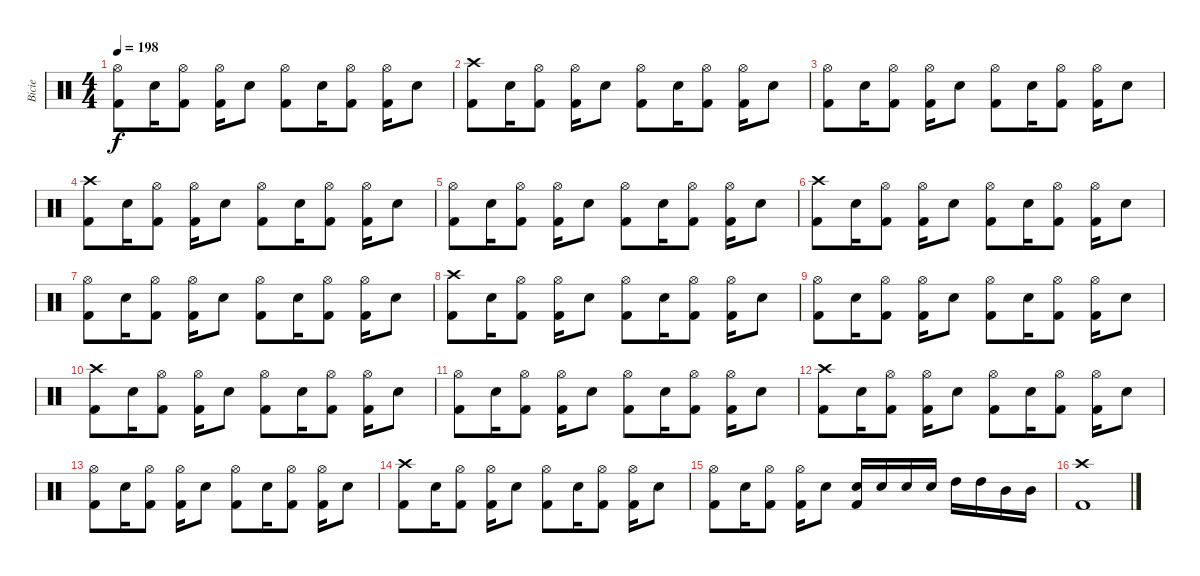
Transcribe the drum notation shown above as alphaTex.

\track ("Bicie" "Bicie") {instrument percussion}
\staff {score}
\articulation defaults
\ts (4 4)
\tempo 198
\clef neutral
\ks c
("Hi-Hat (open)" "Kick (hit) 2").8{dy f} "Electric Snare (hit)".16 ("Hi-Hat (open)" "Kick (hit) 2").8 ("Hi-Hat (open)" "Kick (hit) 2").16 "Electric Snare (hit)".8 ("Hi-Hat (open)" "Kick (hit) 2").8 "Electric Snare (hit)".16 ("Hi-Hat (open)" "Kick (hit) 2").8 ("Hi-Hat (open)" "Kick (hit) 2").16 "Electric Snare (hit)".8 |
("Crash high (hit)" "Kick (hit) 2").8 "Electric Snare (hit)".16 ("Hi-Hat (open)" "Kick (hit) 2").8 ("Hi-Hat (open)" "Kick (hit) 2").16 "Electric Snare (hit)".8 ("Hi-Hat (open)" "Kick (hit) 2").8 "Electric Snare (hit)".16 ("Hi-Hat (open)" "Kick (hit) 2").8 ("Hi-Hat (open)" "Kick (hit) 2").16 "Electric Snare (hit)".8 |
("Hi-Hat (open)" "Kick (hit) 2").8 "Electric Snare (hit)".16 ("Hi-Hat (open)" "Kick (hit) 2").8 ("Hi-Hat (open)" "Kick (hit) 2").16 "Electric Snare (hit)".8 ("Hi-Hat (open)" "Kick (hit) 2").8 "Electric Snare (hit)".16 ("Hi-Hat (open)" "Kick (hit) 2").8 ("Hi-Hat (open)" "Kick (hit) 2").16 "Electric Snare (hit)".8 |
("Crash high (hit)" "Kick (hit) 2").8 "Electric Snare (hit)".16 ("Hi-Hat (open)" "Kick (hit) 2").8 ("Hi-Hat (open)" "Kick (hit) 2").16 "Electric Snare (hit)".8 ("Hi-Hat (open)" "Kick (hit) 2").8 "Electric Snare (hit)".16 ("Hi-Hat (open)" "Kick (hit) 2").8 ("Hi-Hat (open)" "Kick (hit) 2").16 "Electric Snare (hit)".8 |
("Hi-Hat (open)" "Kick (hit) 2").8 "Electric Snare (hit)".16 ("Hi-Hat (open)" "Kick (hit) 2").8 ("Hi-Hat (open)" "Kick (hit) 2").16 "Electric Snare (hit)".8 ("Hi-Hat (open)" "Kick (hit) 2").8 "Electric Snare (hit)".16 ("Hi-Hat (open)" "Kick (hit) 2").8 ("Hi-Hat (open)" "Kick (hit) 2").16 "Electric Snare (hit)".8 |
("Crash high (hit)" "Kick (hit) 2").8 "Electric Snare (hit)".16 ("Hi-Hat (open)" "Kick (hit) 2").8 ("Hi-Hat (open)" "Kick (hit) 2").16 "Electric Snare (hit)".8 ("Hi-Hat (open)" "Kick (hit) 2").8 "Electric Snare (hit)".16 ("Hi-Hat (open)" "Kick (hit) 2").8 ("Hi-Hat (open)" "Kick (hit) 2").16 "Electric Snare (hit)".8 |
("Hi-Hat (open)" "Kick (hit) 2").8 "Electric Snare (hit)".16 ("Hi-Hat (open)" "Kick (hit) 2").8 ("Hi-Hat (open)" "Kick (hit) 2").16 "Electric Snare (hit)".8 ("Hi-Hat (open)" "Kick (hit) 2").8 "Electric Snare (hit)".16 ("Hi-Hat (open)" "Kick (hit) 2").8 ("Hi-Hat (open)" "Kick (hit) 2").16 "Electric Snare (hit)".8 |
("Crash high (hit)" "Kick (hit) 2").8 "Electric Snare (hit)".16 ("Hi-Hat (open)" "Kick (hit) 2").8 ("Hi-Hat (open)" "Kick (hit) 2").16 "Electric Snare (hit)".8 ("Hi-Hat (open)" "Kick (hit) 2").8 "Electric Snare (hit)".16 ("Hi-Hat (open)" "Kick (hit) 2").8 ("Hi-Hat (open)" "Kick (hit) 2").16 "Electric Snare (hit)".8 |
("Hi-Hat (open)" "Kick (hit) 2").8 "Electric Snare (hit)".16 ("Hi-Hat (open)" "Kick (hit) 2").8 ("Hi-Hat (open)" "Kick (hit) 2").16 "Electric Snare (hit)".8 ("Hi-Hat (open)" "Kick (hit) 2").8 "Electric Snare (hit)".16 ("Hi-Hat (open)" "Kick (hit) 2").8 ("Hi-Hat (open)" "Kick (hit) 2").16 "Electric Snare (hit)".8 |
("Crash high (hit)" "Kick (hit) 2").8 "Electric Snare (hit)".16 ("Hi-Hat (open)" "Kick (hit) 2").8 ("Hi-Hat (open)" "Kick (hit) 2").16 "Electric Snare (hit)".8 ("Hi-Hat (open)" "Kick (hit) 2").8 "Electric Snare (hit)".16 ("Hi-Hat (open)" "Kick (hit) 2").8 ("Hi-Hat (open)" "Kick (hit) 2").16 "Electric Snare (hit)".8 |
("Hi-Hat (open)" "Kick (hit) 2").8 "Electric Snare (hit)".16 ("Hi-Hat (open)" "Kick (hit) 2").8 ("Hi-Hat (open)" "Kick (hit) 2").16 "Electric Snare (hit)".8 ("Hi-Hat (open)" "Kick (hit) 2").8 "Electric Snare (hit)".16 ("Hi-Hat (open)" "Kick (hit) 2").8 ("Hi-Hat (open)" "Kick (hit) 2").16 "Electric Snare (hit)".8 |
("Crash high (hit)" "Kick (hit) 2").8 "Electric Snare (hit)".16 ("Hi-Hat (open)" "Kick (hit) 2").8 ("Hi-Hat (open)" "Kick (hit) 2").16 "Electric Snare (hit)".8 ("Hi-Hat (open)" "Kick (hit) 2").8 "Electric Snare (hit)".16 ("Hi-Hat (open)" "Kick (hit) 2").8 ("Hi-Hat (open)" "Kick (hit) 2").16 "Electric Snare (hit)".8 |
("Hi-Hat (open)" "Kick (hit) 2").8 "Electric Snare (hit)".16 ("Hi-Hat (open)" "Kick (hit) 2").8 ("Hi-Hat (open)" "Kick (hit) 2").16 "Electric Snare (hit)".8 ("Hi-Hat (open)" "Kick (hit) 2").8 "Electric Snare (hit)".16 ("Hi-Hat (open)" "Kick (hit) 2").8 ("Hi-Hat (open)" "Kick (hit) 2").16 "Electric Snare (hit)".8 |
("Crash high (hit)" "Kick (hit) 2").8 "Electric Snare (hit)".16 ("Hi-Hat (open)" "Kick (hit) 2").8 ("Hi-Hat (open)" "Kick (hit) 2").16 "Electric Snare (hit)".8 ("Hi-Hat (open)" "Kick (hit) 2").8 "Electric Snare (hit)".16 ("Hi-Hat (open)" "Kick (hit) 2").8 ("Hi-Hat (open)" "Kick (hit) 2").16 "Electric Snare (hit)".8 |
("Hi-Hat (open)" "Kick (hit) 2").8 "Electric Snare (hit)".16 ("Hi-Hat (open)" "Kick (hit) 2").8 ("Hi-Hat (open)" "Kick (hit) 2").16 "Electric Snare (hit)".8 ("Electric Snare (hit)" "Kick (hit) 2").16 "Electric Snare (hit)".16 "Electric Snare (hit)".16 "Electric Snare (hit)".16 "High Tom (hit)".16 "High Tom (hit)".16 "Mid Tom (hit)".16 "Mid Tom (hit)".16 |
("Crash high (hit)" "Kick (hit) 2").1
